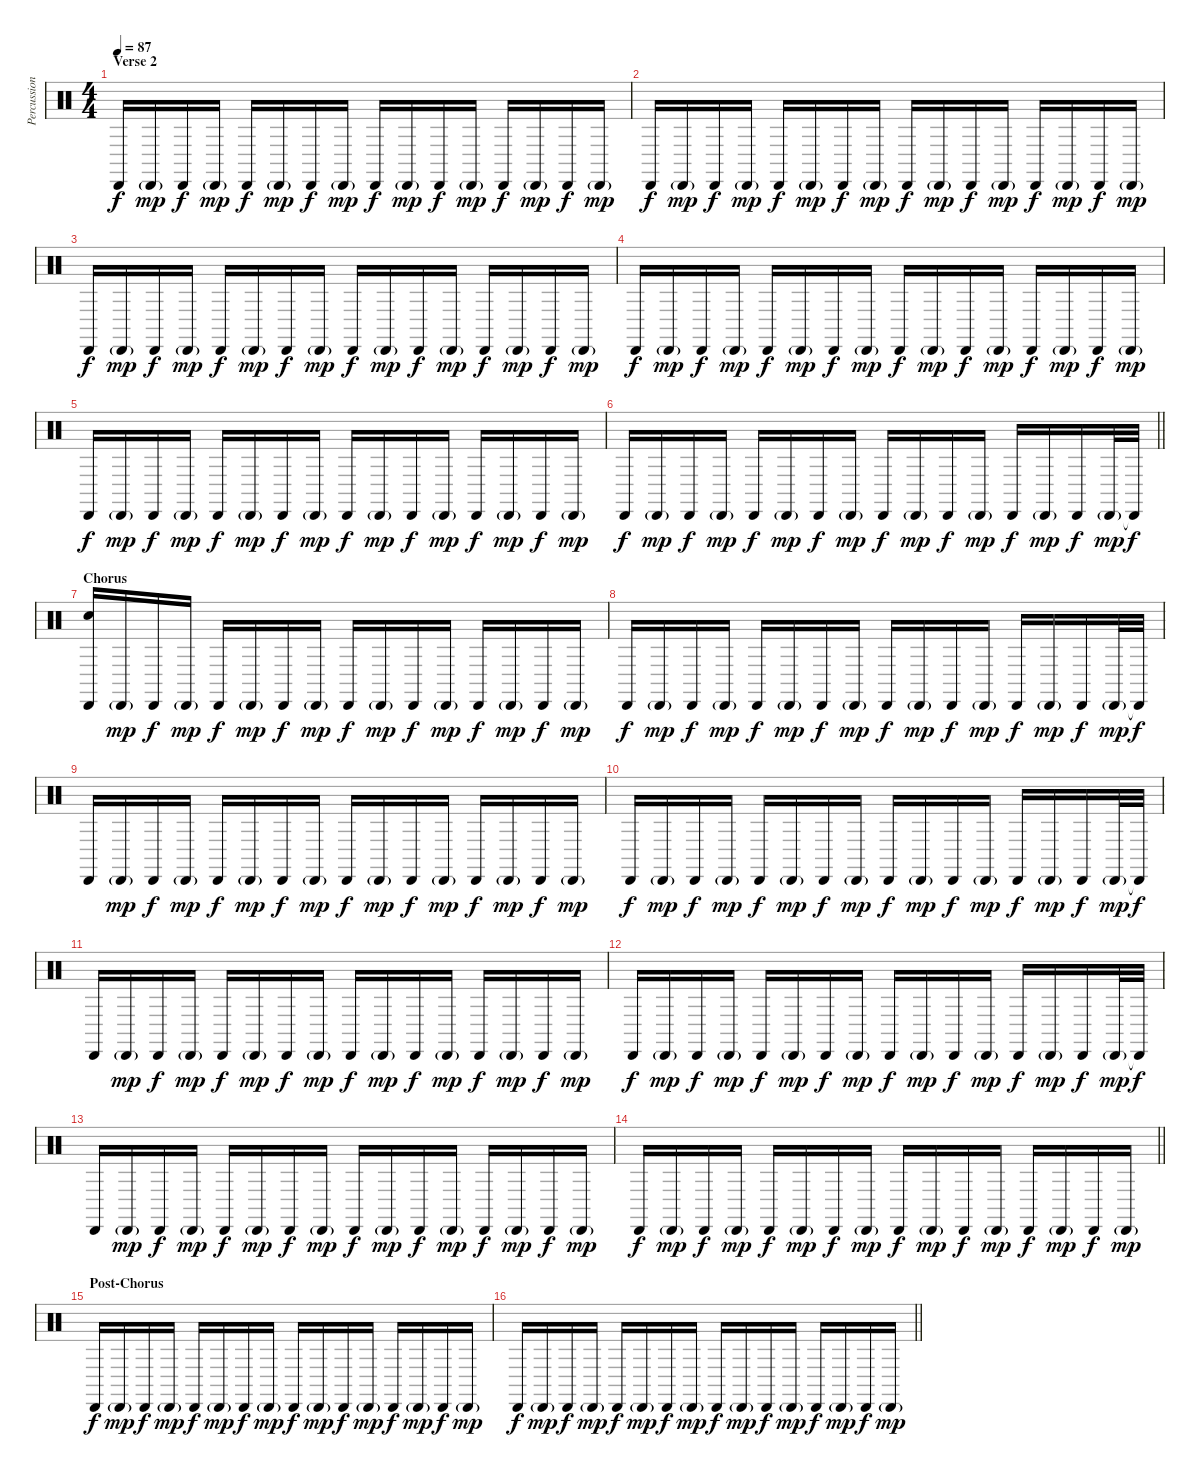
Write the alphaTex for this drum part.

\track ("Percussion" "Percussion") {instrument percussion}
\staff {score}
\articulation defaults
\ts (4 4)
\section ("" "Verse 2")
\tempo 87
\clef neutral
\ks c "Cabasa (hit)".16{dy f} "Cabasa (hit)"{g}.16{dy mp} "Cabasa (hit)".16{dy f} "Cabasa (hit)"{g}.16{dy mp} "Cabasa (hit)".16{dy f} "Cabasa (hit)"{g}.16{dy mp} "Cabasa (hit)".16{dy f} "Cabasa (hit)"{g}.16{dy mp} "Cabasa (hit)".16{dy f} "Cabasa (hit)"{g}.16{dy mp} "Cabasa (hit)".16{dy f} "Cabasa (hit)"{g}.16{dy mp} "Cabasa (hit)".16{dy f} "Cabasa (hit)"{g}.16{dy mp} "Cabasa (hit)".16{dy f} "Cabasa (hit)"{g}.16{dy mp}
|
"Cabasa (hit)".16{dy f} "Cabasa (hit)"{g}.16{dy mp} "Cabasa (hit)".16{dy f} "Cabasa (hit)"{g}.16{dy mp} "Cabasa (hit)".16{dy f} "Cabasa (hit)"{g}.16{dy mp} "Cabasa (hit)".16{dy f} "Cabasa (hit)"{g}.16{dy mp} "Cabasa (hit)".16{dy f} "Cabasa (hit)"{g}.16{dy mp} "Cabasa (hit)".16{dy f} "Cabasa (hit)"{g}.16{dy mp} "Cabasa (hit)".16{dy f} "Cabasa (hit)"{g}.16{dy mp} "Cabasa (hit)".16{dy f} "Cabasa (hit)"{g}.16{dy mp} |
"Cabasa (hit)".16{dy f} "Cabasa (hit)"{g}.16{dy mp} "Cabasa (hit)".16{dy f} "Cabasa (hit)"{g}.16{dy mp} "Cabasa (hit)".16{dy f} "Cabasa (hit)"{g}.16{dy mp} "Cabasa (hit)".16{dy f} "Cabasa (hit)"{g}.16{dy mp} "Cabasa (hit)".16{dy f} "Cabasa (hit)"{g}.16{dy mp} "Cabasa (hit)".16{dy f} "Cabasa (hit)"{g}.16{dy mp} "Cabasa (hit)".16{dy f} "Cabasa (hit)"{g}.16{dy mp} "Cabasa (hit)".16{dy f} "Cabasa (hit)"{g}.16{dy mp} |
"Cabasa (hit)".16{dy f} "Cabasa (hit)"{g}.16{dy mp} "Cabasa (hit)".16{dy f} "Cabasa (hit)"{g}.16{dy mp} "Cabasa (hit)".16{dy f} "Cabasa (hit)"{g}.16{dy mp} "Cabasa (hit)".16{dy f} "Cabasa (hit)"{g}.16{dy mp} "Cabasa (hit)".16{dy f} "Cabasa (hit)"{g}.16{dy mp} "Cabasa (hit)".16{dy f} "Cabasa (hit)"{g}.16{dy mp} "Cabasa (hit)".16{dy f} "Cabasa (hit)"{g}.16{dy mp} "Cabasa (hit)".16{dy f} "Cabasa (hit)"{g}.16{dy mp} |
"Cabasa (hit)".16{dy f} "Cabasa (hit)"{g}.16{dy mp} "Cabasa (hit)".16{dy f} "Cabasa (hit)"{g}.16{dy mp} "Cabasa (hit)".16{dy f} "Cabasa (hit)"{g}.16{dy mp} "Cabasa (hit)".16{dy f} "Cabasa (hit)"{g}.16{dy mp} "Cabasa (hit)".16{dy f} "Cabasa (hit)"{g}.16{dy mp} "Cabasa (hit)".16{dy f} "Cabasa (hit)"{g}.16{dy mp} "Cabasa (hit)".16{dy f} "Cabasa (hit)"{g}.16{dy mp} "Cabasa (hit)".16{dy f} "Cabasa (hit)"{g}.16{dy mp} |
\barLineRight lightlight "Cabasa (hit)".16{dy f} "Cabasa (hit)"{g}.16{dy mp} "Cabasa (hit)".16{dy f} "Cabasa (hit)"{g}.16{dy mp} "Cabasa (hit)".16{dy f} "Cabasa (hit)"{g}.16{dy mp} "Cabasa (hit)".16{dy f} "Cabasa (hit)"{g}.16{dy mp} "Cabasa (hit)".16{dy f} "Cabasa (hit)"{g}.16{dy mp} "Cabasa (hit)".16{dy f} "Cabasa (hit)"{g}.16{dy mp} "Cabasa (hit)".16{dy f} "Cabasa (hit)"{g}.16{dy mp} "Cabasa (hit)".16{dy f} "Cabasa (hit)"{g}.32{dy mp} "Cabasa (hit)"{t}.32{dy f}
|
\section ("" "Chorus")
("Cabasa (hit)" "Snare (hit)").16 "Cabasa (hit)"{g}.16{dy mp} "Cabasa (hit)".16{dy f} "Cabasa (hit)"{g}.16{dy mp} "Cabasa (hit)".16{dy f} "Cabasa (hit)"{g}.16{dy mp} "Cabasa (hit)".16{dy f} "Cabasa (hit)"{g}.16{dy mp} "Cabasa (hit)".16{dy f} "Cabasa (hit)"{g}.16{dy mp} "Cabasa (hit)".16{dy f} "Cabasa (hit)"{g}.16{dy mp} "Cabasa (hit)".16{dy f} "Cabasa (hit)"{g}.16{dy mp} "Cabasa (hit)".16{dy f} "Cabasa (hit)"{g}.16{dy mp} |
"Cabasa (hit)".16{dy f} "Cabasa (hit)"{g}.16{dy mp} "Cabasa (hit)".16{dy f} "Cabasa (hit)"{g}.16{dy mp} "Cabasa (hit)".16{dy f} "Cabasa (hit)"{g}.16{dy mp} "Cabasa (hit)".16{dy f} "Cabasa (hit)"{g}.16{dy mp} "Cabasa (hit)".16{dy f} "Cabasa (hit)"{g}.16{dy mp} "Cabasa (hit)".16{dy f} "Cabasa (hit)"{g}.16{dy mp} "Cabasa (hit)".16{dy f} "Cabasa (hit)"{g}.16{dy mp} "Cabasa (hit)".16{dy f} "Cabasa (hit)"{g}.32{dy mp} "Cabasa (hit)"{t}.32{dy f} |
"Cabasa (hit)".16 "Cabasa (hit)"{g}.16{dy mp} "Cabasa (hit)".16{dy f} "Cabasa (hit)"{g}.16{dy mp} "Cabasa (hit)".16{dy f} "Cabasa (hit)"{g}.16{dy mp} "Cabasa (hit)".16{dy f} "Cabasa (hit)"{g}.16{dy mp} "Cabasa (hit)".16{dy f} "Cabasa (hit)"{g}.16{dy mp} "Cabasa (hit)".16{dy f} "Cabasa (hit)"{g}.16{dy mp} "Cabasa (hit)".16{dy f} "Cabasa (hit)"{g}.16{dy mp} "Cabasa (hit)".16{dy f} "Cabasa (hit)"{g}.16{dy mp} |
"Cabasa (hit)".16{dy f} "Cabasa (hit)"{g}.16{dy mp} "Cabasa (hit)".16{dy f} "Cabasa (hit)"{g}.16{dy mp} "Cabasa (hit)".16{dy f} "Cabasa (hit)"{g}.16{dy mp} "Cabasa (hit)".16{dy f} "Cabasa (hit)"{g}.16{dy mp} "Cabasa (hit)".16{dy f} "Cabasa (hit)"{g}.16{dy mp} "Cabasa (hit)".16{dy f} "Cabasa (hit)"{g}.16{dy mp} "Cabasa (hit)".16{dy f} "Cabasa (hit)"{g}.16{dy mp} "Cabasa (hit)".16{dy f} "Cabasa (hit)"{g}.32{dy mp} "Cabasa (hit)"{t}.32{dy f} |
"Cabasa (hit)".16 "Cabasa (hit)"{g}.16{dy mp} "Cabasa (hit)".16{dy f} "Cabasa (hit)"{g}.16{dy mp} "Cabasa (hit)".16{dy f} "Cabasa (hit)"{g}.16{dy mp} "Cabasa (hit)".16{dy f} "Cabasa (hit)"{g}.16{dy mp} "Cabasa (hit)".16{dy f} "Cabasa (hit)"{g}.16{dy mp} "Cabasa (hit)".16{dy f} "Cabasa (hit)"{g}.16{dy mp} "Cabasa (hit)".16{dy f} "Cabasa (hit)"{g}.16{dy mp} "Cabasa (hit)".16{dy f} "Cabasa (hit)"{g}.16{dy mp} |
"Cabasa (hit)".16{dy f} "Cabasa (hit)"{g}.16{dy mp} "Cabasa (hit)".16{dy f} "Cabasa (hit)"{g}.16{dy mp} "Cabasa (hit)".16{dy f} "Cabasa (hit)"{g}.16{dy mp} "Cabasa (hit)".16{dy f} "Cabasa (hit)"{g}.16{dy mp} "Cabasa (hit)".16{dy f} "Cabasa (hit)"{g}.16{dy mp} "Cabasa (hit)".16{dy f} "Cabasa (hit)"{g}.16{dy mp} "Cabasa (hit)".16{dy f} "Cabasa (hit)"{g}.16{dy mp} "Cabasa (hit)".16{dy f} "Cabasa (hit)"{g}.32{dy mp} "Cabasa (hit)"{t}.32{dy f} |
"Cabasa (hit)".16 "Cabasa (hit)"{g}.16{dy mp} "Cabasa (hit)".16{dy f} "Cabasa (hit)"{g}.16{dy mp} "Cabasa (hit)".16{dy f} "Cabasa (hit)"{g}.16{dy mp} "Cabasa (hit)".16{dy f} "Cabasa (hit)"{g}.16{dy mp} "Cabasa (hit)".16{dy f} "Cabasa (hit)"{g}.16{dy mp} "Cabasa (hit)".16{dy f} "Cabasa (hit)"{g}.16{dy mp} "Cabasa (hit)".16{dy f} "Cabasa (hit)"{g}.16{dy mp} "Cabasa (hit)".16{dy f} "Cabasa (hit)"{g}.16{dy mp} |
\barLineRight lightlight "Cabasa (hit)".16{dy f} "Cabasa (hit)"{g}.16{dy mp} "Cabasa (hit)".16{dy f} "Cabasa (hit)"{g}.16{dy mp} "Cabasa (hit)".16{dy f} "Cabasa (hit)"{g}.16{dy mp} "Cabasa (hit)".16{dy f} "Cabasa (hit)"{g}.16{dy mp} "Cabasa (hit)".16{dy f} "Cabasa (hit)"{g}.16{dy mp} "Cabasa (hit)".16{dy f} "Cabasa (hit)"{g}.16{dy mp} "Cabasa (hit)".16{dy f} "Cabasa (hit)"{g}.16{dy mp} "Cabasa (hit)".16{dy f} "Cabasa (hit)"{g}.16{dy mp}
|
\section ("" "Post-Chorus")
"Cabasa (hit)".16{dy f} "Cabasa (hit)"{g}.16{dy mp} "Cabasa (hit)".16{dy f} "Cabasa (hit)"{g}.16{dy mp} "Cabasa (hit)".16{dy f} "Cabasa (hit)"{g}.16{dy mp} "Cabasa (hit)".16{dy f} "Cabasa (hit)"{g}.16{dy mp} "Cabasa (hit)".16{dy f} "Cabasa (hit)"{g}.16{dy mp} "Cabasa (hit)".16{dy f} "Cabasa (hit)"{g}.16{dy mp} "Cabasa (hit)".16{dy f} "Cabasa (hit)"{g}.16{dy mp} "Cabasa (hit)".16{dy f} "Cabasa (hit)"{g}.16{dy mp} |
\barLineRight lightlight "Cabasa (hit)".16{dy f} "Cabasa (hit)"{g}.16{dy mp} "Cabasa (hit)".16{dy f} "Cabasa (hit)"{g}.16{dy mp} "Cabasa (hit)".16{dy f} "Cabasa (hit)"{g}.16{dy mp} "Cabasa (hit)".16{dy f} "Cabasa (hit)"{g}.16{dy mp} "Cabasa (hit)".16{dy f} "Cabasa (hit)"{g}.16{dy mp} "Cabasa (hit)".16{dy f} "Cabasa (hit)"{g}.16{dy mp} "Cabasa (hit)".16{dy f} "Cabasa (hit)"{g}.16{dy mp} "Cabasa (hit)".16{dy f} "Cabasa (hit)"{g}.16{dy mp}
